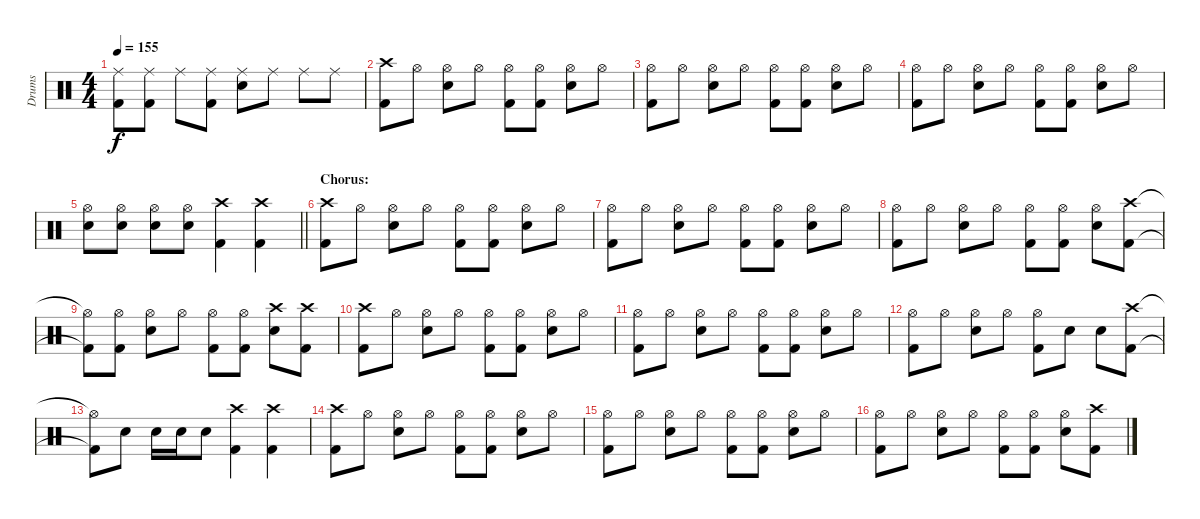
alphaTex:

\track ("Drums" "Drums") {instrument percussion}
\staff {score}
\articulation defaults
\ts (4 4)
\tempo 155
\clef neutral
\ks c
("Ride (middle)" "Kick (hit) 2").8{dy f} ("Ride (middle)" "Kick (hit) 2").8 "Ride (middle)".8 ("Ride (middle)" "Kick (hit) 2").8 ("Ride (middle)" "Electric Snare (hit)").8 "Ride (middle)".8 "Ride (middle)".8 "Ride (middle)".8 |
("Crash high (hit)" "Kick (hit) 2").8 "Hi-Hat (open)".8 ("Hi-Hat (open)" "Electric Snare (hit)").8 "Hi-Hat (open)".8 ("Hi-Hat (open)" "Kick (hit) 2").8 ("Hi-Hat (open)" "Kick (hit) 2").8 ("Hi-Hat (open)" "Electric Snare (hit)").8 "Hi-Hat (open)".8 |
("Hi-Hat (open)" "Kick (hit) 2").8 "Hi-Hat (open)".8 ("Hi-Hat (open)" "Electric Snare (hit)").8 "Hi-Hat (open)".8 ("Hi-Hat (open)" "Kick (hit) 2").8 ("Hi-Hat (open)" "Kick (hit) 2").8 ("Hi-Hat (open)" "Electric Snare (hit)").8 "Hi-Hat (open)".8 |
("Hi-Hat (open)" "Kick (hit) 2").8 "Hi-Hat (open)".8 ("Hi-Hat (open)" "Electric Snare (hit)").8 "Hi-Hat (open)".8 ("Hi-Hat (open)" "Kick (hit) 2").8 ("Hi-Hat (open)" "Kick (hit) 2").8 ("Hi-Hat (open)" "Electric Snare (hit)").8 "Hi-Hat (open)".8 |
\barLineRight lightlight
("Hi-Hat (open)" "Electric Snare (hit)").8 ("Hi-Hat (open)" "Electric Snare (hit)").8 ("Hi-Hat (open)" "Electric Snare (hit)").8 ("Hi-Hat (open)" "Electric Snare (hit)").8 ("Crash high (hit)" "Kick (hit) 2").4 ("Crash high (hit)" "Kick (hit) 2").4 |
\section ("" "Chorus:")
("Crash high (hit)" "Kick (hit) 2").8 "Hi-Hat (open)".8 ("Hi-Hat (open)" "Electric Snare (hit)").8 "Hi-Hat (open)".8 ("Hi-Hat (open)" "Kick (hit) 2").8 ("Hi-Hat (open)" "Kick (hit) 2").8 ("Hi-Hat (open)" "Electric Snare (hit)").8 "Hi-Hat (open)".8 |
("Hi-Hat (open)" "Kick (hit) 2").8 "Hi-Hat (open)".8 ("Hi-Hat (open)" "Electric Snare (hit)").8 "Hi-Hat (open)".8 ("Hi-Hat (open)" "Kick (hit) 2").8 ("Hi-Hat (open)" "Kick (hit) 2").8 ("Hi-Hat (open)" "Electric Snare (hit)").8 "Hi-Hat (open)".8 |
("Hi-Hat (open)" "Kick (hit) 2").8 "Hi-Hat (open)".8 ("Hi-Hat (open)" "Electric Snare (hit)").8 "Hi-Hat (open)".8 ("Hi-Hat (open)" "Kick (hit) 2").8 ("Hi-Hat (open)" "Kick (hit) 2").8 ("Hi-Hat (open)" "Electric Snare (hit)").8 ("Crash high (hit)" "Kick (hit) 2").8 |
("Hi-Hat (open)"{t} "Kick (hit) 2"{t}).8 ("Hi-Hat (open)" "Kick (hit) 2").8 ("Hi-Hat (open)" "Electric Snare (hit)").8 "Hi-Hat (open)".8 ("Hi-Hat (open)" "Kick (hit) 2").8 ("Hi-Hat (open)" "Kick (hit) 2").8 ("Crash high (hit)" "Electric Snare (hit)").8 ("Crash high (hit)" "Kick (hit) 2").8 |
("Crash high (hit)" "Kick (hit) 2").8 "Hi-Hat (open)".8 ("Hi-Hat (open)" "Electric Snare (hit)").8 "Hi-Hat (open)".8 ("Hi-Hat (open)" "Kick (hit) 2").8 ("Hi-Hat (open)" "Kick (hit) 2").8 ("Hi-Hat (open)" "Electric Snare (hit)").8 "Hi-Hat (open)".8 |
("Hi-Hat (open)" "Kick (hit) 2").8 "Hi-Hat (open)".8 ("Hi-Hat (open)" "Electric Snare (hit)").8 "Hi-Hat (open)".8 ("Hi-Hat (open)" "Kick (hit) 2").8 ("Hi-Hat (open)" "Kick (hit) 2").8 ("Hi-Hat (open)" "Electric Snare (hit)").8 "Hi-Hat (open)".8 |
("Hi-Hat (open)" "Kick (hit) 2").8 "Hi-Hat (open)".8 ("Hi-Hat (open)" "Electric Snare (hit)").8 "Hi-Hat (open)".8 ("Hi-Hat (open)" "Kick (hit) 2").8 "Electric Snare (hit)".8 "Electric Snare (hit)".8 ("Crash high (hit)" "Kick (hit) 2").8 |
("Hi-Hat (open)"{t} "Kick (hit) 2"{t}).8 "Electric Snare (hit)".8 "Electric Snare (hit)".16 "Electric Snare (hit)".16 "Electric Snare (hit)".8 ("Crash high (hit)" "Kick (hit) 2").4 ("Crash high (hit)" "Kick (hit) 2").4 |
("Crash high (hit)" "Kick (hit) 2").8 "Hi-Hat (open)".8 ("Hi-Hat (open)" "Electric Snare (hit)").8 "Hi-Hat (open)".8 ("Hi-Hat (open)" "Kick (hit) 2").8 ("Hi-Hat (open)" "Kick (hit) 2").8 ("Hi-Hat (open)" "Electric Snare (hit)").8 "Hi-Hat (open)".8 |
("Hi-Hat (open)" "Kick (hit) 2").8 "Hi-Hat (open)".8 ("Hi-Hat (open)" "Electric Snare (hit)").8 "Hi-Hat (open)".8 ("Hi-Hat (open)" "Kick (hit) 2").8 ("Hi-Hat (open)" "Kick (hit) 2").8 ("Hi-Hat (open)" "Electric Snare (hit)").8 "Hi-Hat (open)".8 |
("Hi-Hat (open)" "Kick (hit) 2").8 "Hi-Hat (open)".8 ("Hi-Hat (open)" "Electric Snare (hit)").8 "Hi-Hat (open)".8 ("Hi-Hat (open)" "Kick (hit) 2").8 ("Hi-Hat (open)" "Kick (hit) 2").8 ("Hi-Hat (open)" "Electric Snare (hit)").8 ("Crash high (hit)" "Kick (hit) 2").8
